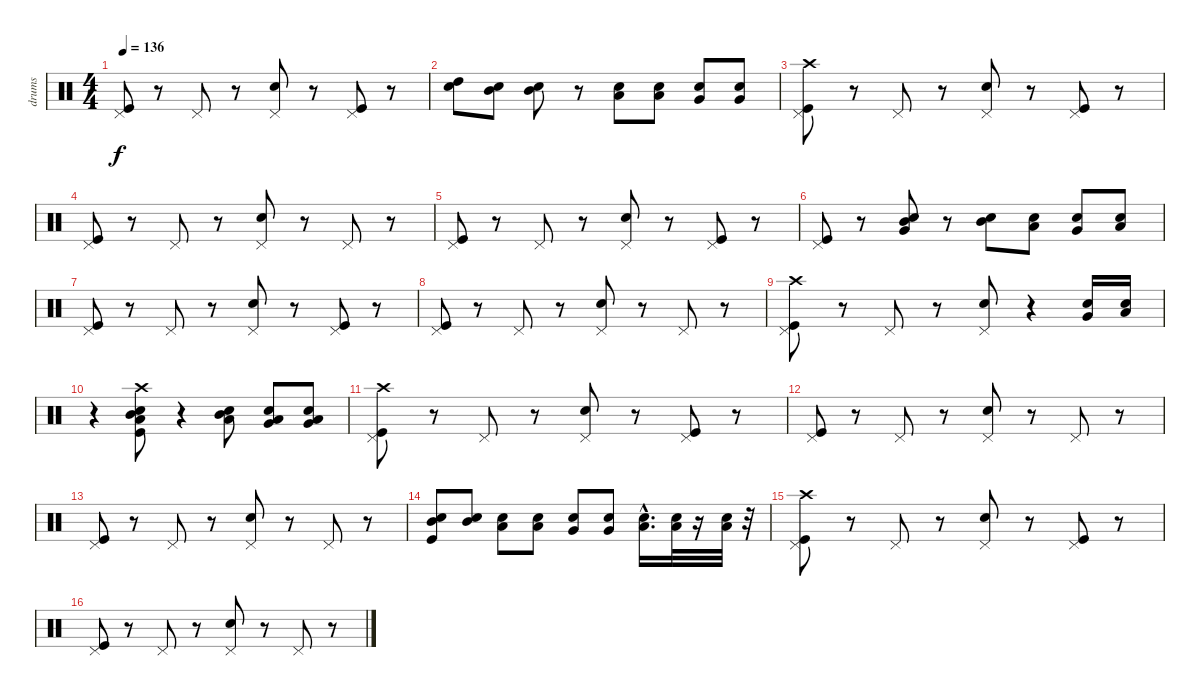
\track ("drums" "drums") {instrument percussion}
\staff {score}
\articulation defaults
\ts (4 4)
\tempo 136
\clef neutral
\ks c
("Kick (hit)" "Pedal Hi-Hat (hit)").8{dy f} r.8 "Pedal Hi-Hat (hit)".8 r.8 ("Snare (hit) 2" "Pedal Hi-Hat (hit)").8 r.8 ("Kick (hit)" "Pedal Hi-Hat (hit)").8 r.8 |
("Snare (hit) 2" "High Tom (hit)").8 ("Snare (hit) 2" "Mid Tom (hit)").8 ("Snare (hit) 2" "Mid Tom (hit)").8 r.8 ("Snare (hit) 2" "Low Tom (hit)").8 ("Low Tom (hit)" "Snare (hit) 2").8 ("Snare (hit) 2" "Very Low Tom (hit)").8 ("Snare (hit) 2" "Very Low Tom (hit)").8 |
("Kick (hit)" "Crash high (hit)" "Pedal Hi-Hat (hit)").8 r.8 "Pedal Hi-Hat (hit)".8 r.8 ("Snare (hit) 2" "Pedal Hi-Hat (hit)").8 r.8 ("Kick (hit)" "Pedal Hi-Hat (hit)").8 r.8 |
("Kick (hit)" "Pedal Hi-Hat (hit)").8 r.8 "Pedal Hi-Hat (hit)".8 r.8 ("Snare (hit) 2" "Pedal Hi-Hat (hit)").8 r.8 "Pedal Hi-Hat (hit)".8 r.8 |
("Kick (hit)" "Pedal Hi-Hat (hit)").8 r.8 "Pedal Hi-Hat (hit)".8 r.8 ("Snare (hit) 2" "Pedal Hi-Hat (hit)").8 r.8 ("Kick (hit)" "Pedal Hi-Hat (hit)").8 r.8 |
("Kick (hit)" "Pedal Hi-Hat (hit)").8 r.8 ("Snare (hit) 2" "Mid Tom (hit)" "Very Low Tom (hit)").8 r.8 ("Snare (hit) 2" "Mid Tom (hit)").8 ("Low Tom (hit)" "Snare (hit) 2").8 ("Snare (hit) 2" "Very Low Tom (hit)").8 ("Snare (hit) 2" "Low Floor Tom (hit)").8 |
("Kick (hit)" "Pedal Hi-Hat (hit)").8 r.8 "Pedal Hi-Hat (hit)".8 r.8 ("Snare (hit) 2" "Pedal Hi-Hat (hit)").8 r.8 ("Kick (hit)" "Pedal Hi-Hat (hit)").8 r.8 |
("Kick (hit)" "Pedal Hi-Hat (hit)").8 r.8 "Pedal Hi-Hat (hit)".8 r.8 ("Snare (hit) 2" "Pedal Hi-Hat (hit)").8 r.8 "Pedal Hi-Hat (hit)".8 r.8 |
("Kick (hit)" "Crash high (hit)" "Pedal Hi-Hat (hit)").8 r.8 "Pedal Hi-Hat (hit)".8 r.8 ("Snare (hit) 2" "Pedal Hi-Hat (hit)").8 r.4 ("Snare (hit) 2" "Very Low Tom (hit)").16 ("Snare (hit) 2" "Low Floor Tom (hit)").16 |
r.4 ("Snare (hit) 2" "Kick (hit)" "Crash high (hit)" "Mid Tom (hit)" "Low Tom (hit)").8 r.4 ("Snare (hit) 2" "Mid Tom (hit)" "Low Tom (hit)").8 ("Snare (hit) 2" "Low Tom (hit)" "Very Low Tom (hit)").8 ("Snare (hit) 2" "Low Floor Tom (hit)" "Very Low Tom (hit)").8 |
("Kick (hit)" "Crash high (hit)" "Pedal Hi-Hat (hit)").8 r.8 "Pedal Hi-Hat (hit)".8 r.8 ("Snare (hit) 2" "Pedal Hi-Hat (hit)").8 r.8 ("Kick (hit)" "Pedal Hi-Hat (hit)").8 r.8 |
("Kick (hit)" "Pedal Hi-Hat (hit)").8 r.8 "Pedal Hi-Hat (hit)".8 r.8 ("Snare (hit) 2" "Pedal Hi-Hat (hit)").8 r.8 "Pedal Hi-Hat (hit)".8 r.8 |
("Kick (hit)" "Pedal Hi-Hat (hit)").8 r.8 "Pedal Hi-Hat (hit)".8 r.8 ("Snare (hit) 2" "Pedal Hi-Hat (hit)").8 r.8 "Pedal Hi-Hat (hit)".8 r.8 |
("Kick (hit)" "Snare (hit) 2" "Mid Tom (hit)").8 ("Snare (hit) 2" "Mid Tom (hit)").8 ("Snare (hit) 2" "Low Tom (hit)").8 ("Snare (hit) 2" "Low Tom (hit)").8 ("Snare (hit) 2" "Very Low Tom (hit)").8 ("Snare (hit) 2" "Very Low Tom (hit)").8 ("Low Floor Tom (hit)"{hac} "Snare (hit) 2"{hac}).16{d} ("Snare (hit) 2" "Low Floor Tom (hit)").32 r.16 ("Snare (hit) 2" "Low Floor Tom (hit)").32 r.32 |
("Kick (hit)" "Crash high (hit)" "Pedal Hi-Hat (hit)").8 r.8 "Pedal Hi-Hat (hit)".8 r.8 ("Snare (hit) 2" "Pedal Hi-Hat (hit)").8 r.8 ("Kick (hit)" "Pedal Hi-Hat (hit)").8 r.8 |
("Kick (hit)" "Pedal Hi-Hat (hit)").8 r.8 "Pedal Hi-Hat (hit)".8 r.8 ("Snare (hit) 2" "Pedal Hi-Hat (hit)").8 r.8 "Pedal Hi-Hat (hit)".8 r.8
